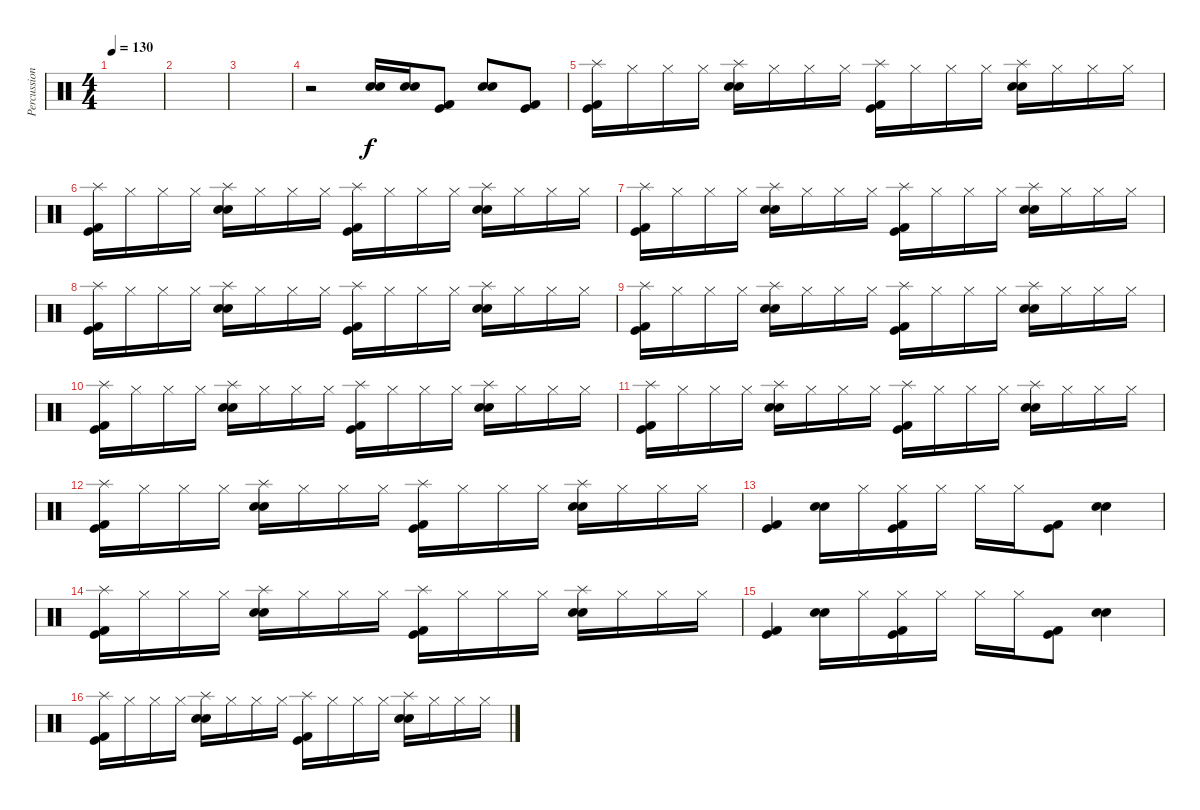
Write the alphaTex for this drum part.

\track ("Percussion" "Percussion") {instrument percussion}
\staff {score}
\articulation defaults
\ts (4 4)
\tempo 130
\clef neutral
\ks c
|
|
|
r.2 ("Electric Snare (hit)" "Snare (hit) 2").16 ("Electric Snare (hit)" "Snare (hit) 2").16 ("Kick (hit)" "Kick (hit) 2").8 ("Electric Snare (hit)" "Snare (hit) 2").8 ("Kick (hit)" "Kick (hit) 2").8 |
("Splash (hit)" "Kick (hit) 2" "Kick (hit)").16 "Hi-Hat (closed)".16 "Hi-Hat (closed)".16 "Hi-Hat (closed)".16 ("Splash (hit)" "Snare (hit) 2" "Electric Snare (hit)").16 "Hi-Hat (closed)".16 "Hi-Hat (closed)".16 "Hi-Hat (closed)".16 ("Splash (hit)" "Kick (hit) 2" "Kick (hit)").16 "Hi-Hat (closed)".16 "Hi-Hat (closed)".16 "Hi-Hat (closed)".16 ("Splash (hit)" "Snare (hit) 2" "Electric Snare (hit)").16 "Hi-Hat (closed)".16 "Hi-Hat (closed)".16 "Hi-Hat (closed)".16 |
("Splash (hit)" "Kick (hit) 2" "Kick (hit)").16 "Hi-Hat (closed)".16 "Hi-Hat (closed)".16 "Hi-Hat (closed)".16 ("Splash (hit)" "Snare (hit) 2" "Electric Snare (hit)").16 "Hi-Hat (closed)".16 "Hi-Hat (closed)".16 "Hi-Hat (closed)".16 ("Splash (hit)" "Kick (hit) 2" "Kick (hit)").16 "Hi-Hat (closed)".16 "Hi-Hat (closed)".16 "Hi-Hat (closed)".16 ("Splash (hit)" "Snare (hit) 2" "Electric Snare (hit)").16 "Hi-Hat (closed)".16 "Hi-Hat (closed)".16 "Hi-Hat (closed)".16 |
("Splash (hit)" "Kick (hit) 2" "Kick (hit)").16 "Hi-Hat (closed)".16 "Hi-Hat (closed)".16 "Hi-Hat (closed)".16 ("Splash (hit)" "Snare (hit) 2" "Electric Snare (hit)").16 "Hi-Hat (closed)".16 "Hi-Hat (closed)".16 "Hi-Hat (closed)".16 ("Splash (hit)" "Kick (hit) 2" "Kick (hit)").16 "Hi-Hat (closed)".16 "Hi-Hat (closed)".16 "Hi-Hat (closed)".16 ("Splash (hit)" "Snare (hit) 2" "Electric Snare (hit)").16 "Hi-Hat (closed)".16 "Hi-Hat (closed)".16 "Hi-Hat (closed)".16 |
("Splash (hit)" "Kick (hit) 2" "Kick (hit)").16 "Hi-Hat (closed)".16 "Hi-Hat (closed)".16 "Hi-Hat (closed)".16 ("Splash (hit)" "Snare (hit) 2" "Electric Snare (hit)").16 "Hi-Hat (closed)".16 "Hi-Hat (closed)".16 "Hi-Hat (closed)".16 ("Splash (hit)" "Kick (hit) 2" "Kick (hit)").16 "Hi-Hat (closed)".16 "Hi-Hat (closed)".16 "Hi-Hat (closed)".16 ("Splash (hit)" "Snare (hit) 2" "Electric Snare (hit)").16 "Hi-Hat (closed)".16 "Hi-Hat (closed)".16 "Hi-Hat (closed)".16 |
("Splash (hit)" "Kick (hit) 2" "Kick (hit)").16 "Hi-Hat (closed)".16 "Hi-Hat (closed)".16 "Hi-Hat (closed)".16 ("Splash (hit)" "Snare (hit) 2" "Electric Snare (hit)").16 "Hi-Hat (closed)".16 "Hi-Hat (closed)".16 "Hi-Hat (closed)".16 ("Splash (hit)" "Kick (hit) 2" "Kick (hit)").16 "Hi-Hat (closed)".16 "Hi-Hat (closed)".16 "Hi-Hat (closed)".16 ("Splash (hit)" "Snare (hit) 2" "Electric Snare (hit)").16 "Hi-Hat (closed)".16 "Hi-Hat (closed)".16 "Hi-Hat (closed)".16 |
("Splash (hit)" "Kick (hit) 2" "Kick (hit)").16 "Hi-Hat (closed)".16 "Hi-Hat (closed)".16 "Hi-Hat (closed)".16 ("Splash (hit)" "Snare (hit) 2" "Electric Snare (hit)").16 "Hi-Hat (closed)".16 "Hi-Hat (closed)".16 "Hi-Hat (closed)".16 ("Splash (hit)" "Kick (hit) 2" "Kick (hit)").16 "Hi-Hat (closed)".16 "Hi-Hat (closed)".16 "Hi-Hat (closed)".16 ("Splash (hit)" "Snare (hit) 2" "Electric Snare (hit)").16 "Hi-Hat (closed)".16 "Hi-Hat (closed)".16 "Hi-Hat (closed)".16 |
("Splash (hit)" "Kick (hit) 2" "Kick (hit)").16 "Hi-Hat (closed)".16 "Hi-Hat (closed)".16 "Hi-Hat (closed)".16 ("Splash (hit)" "Snare (hit) 2" "Electric Snare (hit)").16 "Hi-Hat (closed)".16 "Hi-Hat (closed)".16 "Hi-Hat (closed)".16 ("Splash (hit)" "Kick (hit) 2" "Kick (hit)").16 "Hi-Hat (closed)".16 "Hi-Hat (closed)".16 "Hi-Hat (closed)".16 ("Splash (hit)" "Snare (hit) 2" "Electric Snare (hit)").16 "Hi-Hat (closed)".16 "Hi-Hat (closed)".16 "Hi-Hat (closed)".16 |
("Splash (hit)" "Kick (hit) 2" "Kick (hit)").16 "Hi-Hat (closed)".16 "Hi-Hat (closed)".16 "Hi-Hat (closed)".16 ("Splash (hit)" "Snare (hit) 2" "Electric Snare (hit)").16 "Hi-Hat (closed)".16 "Hi-Hat (closed)".16 "Hi-Hat (closed)".16 ("Splash (hit)" "Kick (hit) 2" "Kick (hit)").16 "Hi-Hat (closed)".16 "Hi-Hat (closed)".16 "Hi-Hat (closed)".16 ("Splash (hit)" "Snare (hit) 2" "Electric Snare (hit)").16 "Hi-Hat (closed)".16 "Hi-Hat (closed)".16 "Hi-Hat (closed)".16 |
("Kick (hit)" "Kick (hit) 2").4 ("Electric Snare (hit)" "Snare (hit) 2").16 "Hi-Hat (closed)".16 ("Hi-Hat (closed)" "Kick (hit)" "Kick (hit) 2").16 "Hi-Hat (closed)".16 "Hi-Hat (closed)".16 "Hi-Hat (closed)".16 ("Kick (hit)" "Kick (hit) 2").8 ("Electric Snare (hit)" "Snare (hit) 2").4 |
("Splash (hit)" "Kick (hit) 2" "Kick (hit)").16 "Hi-Hat (closed)".16 "Hi-Hat (closed)".16 "Hi-Hat (closed)".16 ("Splash (hit)" "Snare (hit) 2" "Electric Snare (hit)").16 "Hi-Hat (closed)".16 "Hi-Hat (closed)".16 "Hi-Hat (closed)".16 ("Splash (hit)" "Kick (hit) 2" "Kick (hit)").16 "Hi-Hat (closed)".16 "Hi-Hat (closed)".16 "Hi-Hat (closed)".16 ("Splash (hit)" "Snare (hit) 2" "Electric Snare (hit)").16 "Hi-Hat (closed)".16 "Hi-Hat (closed)".16 "Hi-Hat (closed)".16 |
("Kick (hit)" "Kick (hit) 2").4 ("Electric Snare (hit)" "Snare (hit) 2").16 "Hi-Hat (closed)".16 ("Hi-Hat (closed)" "Kick (hit)" "Kick (hit) 2").16 "Hi-Hat (closed)".16 "Hi-Hat (closed)".16 "Hi-Hat (closed)".16 ("Kick (hit)" "Kick (hit) 2").8 ("Electric Snare (hit)" "Snare (hit) 2").4 |
("Splash (hit)" "Kick (hit) 2" "Kick (hit)").16 "Hi-Hat (closed)".16 "Hi-Hat (closed)".16 "Hi-Hat (closed)".16 ("Splash (hit)" "Snare (hit) 2" "Electric Snare (hit)").16 "Hi-Hat (closed)".16 "Hi-Hat (closed)".16 "Hi-Hat (closed)".16 ("Splash (hit)" "Kick (hit) 2" "Kick (hit)").16 "Hi-Hat (closed)".16 "Hi-Hat (closed)".16 "Hi-Hat (closed)".16 ("Splash (hit)" "Snare (hit) 2" "Electric Snare (hit)").16 "Hi-Hat (closed)".16 "Hi-Hat (closed)".16 "Hi-Hat (closed)".16
